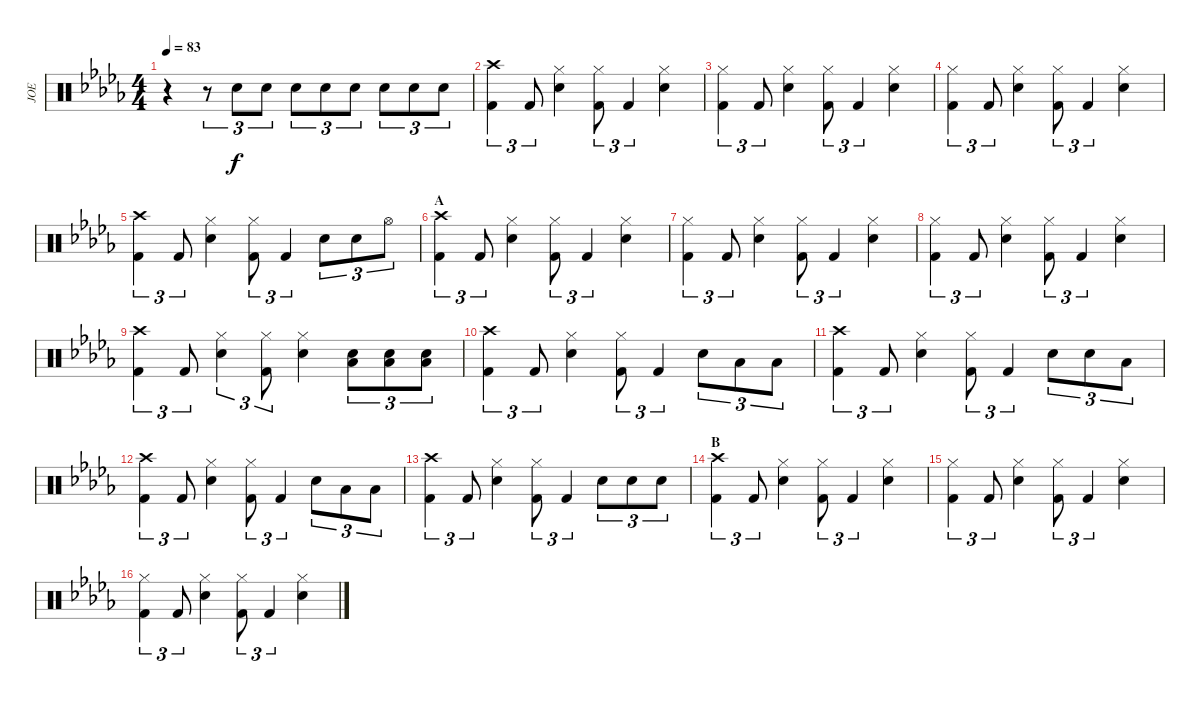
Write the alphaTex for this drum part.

\track ("JOE" "JOE") {instrument percussion}
\staff {score}
\articulation defaults
\ts (4 4)
\tempo 83
\clef neutral
\ks db
r.4{dy f} r.8{tu (3 2)} "Snare (hit) 2".8{tu (3 2)} "Snare (hit) 2".8{tu (3 2)} "Snare (hit) 2".8{tu (3 2)} "Snare (hit) 2".8{tu (3 2)} "Snare (hit) 2".8{tu (3 2)} "Snare (hit) 2".8{tu (3 2)} "Snare (hit) 2".8{tu (3 2)} "Snare (hit) 2".8{tu (3 2)} |
("Crash high (hit)" "Kick (hit) 2").4{tu (3 2)} "Kick (hit) 2".8{tu (3 2)} ("Hi-Hat (closed)" "Snare (hit) 2").4 ("Hi-Hat (closed)" "Kick (hit) 2").8{tu (3 2)} "Kick (hit) 2".4{tu (3 2)} ("Hi-Hat (closed)" "Snare (hit) 2").4 |
("Hi-Hat (closed)" "Kick (hit) 2").4{tu (3 2)} "Kick (hit) 2".8{tu (3 2)} ("Hi-Hat (closed)" "Snare (hit) 2").4 ("Hi-Hat (closed)" "Kick (hit) 2").8{tu (3 2)} "Kick (hit) 2".4{tu (3 2)} ("Hi-Hat (closed)" "Snare (hit) 2").4 |
("Hi-Hat (closed)" "Kick (hit) 2").4{tu (3 2)} "Kick (hit) 2".8{tu (3 2)} ("Hi-Hat (closed)" "Snare (hit) 2").4 ("Hi-Hat (closed)" "Kick (hit) 2").8{tu (3 2)} "Kick (hit) 2".4{tu (3 2)} ("Hi-Hat (closed)" "Snare (hit) 2").4 |
("Crash high (hit)" "Kick (hit) 2").4{tu (3 2)} "Kick (hit) 2".8{tu (3 2)} ("Hi-Hat (closed)" "Snare (hit) 2").4 ("Hi-Hat (closed)" "Kick (hit) 2").8{tu (3 2)} "Kick (hit) 2".4{tu (3 2)} "Snare (hit) 2".8{tu (3 2)} "Snare (hit) 2".8{tu (3 2)} "Hi-Hat (open)".8{tu (3 2)} |
\section ("" "A")
("Crash high (hit)" "Kick (hit) 2").4{tu (3 2)} "Kick (hit) 2".8{tu (3 2)} ("Hi-Hat (closed)" "Snare (hit) 2").4 ("Hi-Hat (closed)" "Kick (hit) 2").8{tu (3 2)} "Kick (hit) 2".4{tu (3 2)} ("Hi-Hat (closed)" "Snare (hit) 2").4 |
("Hi-Hat (closed)" "Kick (hit) 2").4{tu (3 2)} "Kick (hit) 2".8{tu (3 2)} ("Hi-Hat (closed)" "Snare (hit) 2").4 ("Hi-Hat (closed)" "Kick (hit) 2").8{tu (3 2)} "Kick (hit) 2".4{tu (3 2)} ("Hi-Hat (closed)" "Snare (hit) 2").4 |
("Hi-Hat (closed)" "Kick (hit) 2").4{tu (3 2)} "Kick (hit) 2".8{tu (3 2)} ("Hi-Hat (closed)" "Snare (hit) 2").4 ("Hi-Hat (closed)" "Kick (hit) 2").8{tu (3 2)} "Kick (hit) 2".4{tu (3 2)} ("Hi-Hat (closed)" "Snare (hit) 2").4 |
("Crash high (hit)" "Kick (hit) 2").4{tu (3 2)} "Kick (hit) 2".8{tu (3 2)} ("Hi-Hat (closed)" "Snare (hit) 2").4{tu (3 2)} ("Hi-Hat (closed)" "Kick (hit) 2").8{tu (3 2)} ("Hi-Hat (closed)" "Snare (hit) 2").4 ("Low Floor Tom (hit)" "Snare (hit) 2").8{tu (3 2)} ("Low Floor Tom (hit)" "Snare (hit) 2").8{tu (3 2)} ("Low Floor Tom (hit)" "Snare (hit) 2").8{tu (3 2)} |
("Crash high (hit)" "Kick (hit) 2").4{tu (3 2)} "Kick (hit) 2".8{tu (3 2)} ("Hi-Hat (closed)" "Snare (hit) 2").4 ("Hi-Hat (closed)" "Kick (hit) 2").8{tu (3 2)} "Kick (hit) 2".4{tu (3 2)} "Snare (hit) 2".8{tu (3 2)} "Low Floor Tom (hit)".8{tu (3 2)} "Low Floor Tom (hit)".8{tu (3 2)} |
("Crash high (hit)" "Kick (hit) 2").4{tu (3 2)} "Kick (hit) 2".8{tu (3 2)} ("Hi-Hat (closed)" "Snare (hit) 2").4 ("Hi-Hat (closed)" "Kick (hit) 2").8{tu (3 2)} "Kick (hit) 2".4{tu (3 2)} "Snare (hit) 2".8{tu (3 2)} "Snare (hit) 2".8{tu (3 2)} "Low Floor Tom (hit)".8{tu (3 2)} |
("Crash high (hit)" "Kick (hit) 2").4{tu (3 2)} "Kick (hit) 2".8{tu (3 2)} ("Hi-Hat (closed)" "Snare (hit) 2").4 ("Hi-Hat (closed)" "Kick (hit) 2").8{tu (3 2)} "Kick (hit) 2".4{tu (3 2)} "Snare (hit) 2".8{tu (3 2)} "Low Floor Tom (hit)".8{tu (3 2)} "Low Floor Tom (hit)".8{tu (3 2)} |
("Crash high (hit)" "Kick (hit) 2").4{tu (3 2)} "Kick (hit) 2".8{tu (3 2)} ("Hi-Hat (closed)" "Snare (hit) 2").4 ("Hi-Hat (closed)" "Kick (hit) 2").8{tu (3 2)} "Kick (hit) 2".4{tu (3 2)} "Snare (hit) 2".8{tu (3 2)} "Snare (hit) 2".8{tu (3 2)} "Snare (hit) 2".8{tu (3 2)} |
\section ("" "B")
("Crash high (hit)" "Kick (hit) 2").4{tu (3 2)} "Kick (hit) 2".8{tu (3 2)} ("Hi-Hat (closed)" "Snare (hit) 2").4 ("Hi-Hat (closed)" "Kick (hit) 2").8{tu (3 2)} "Kick (hit) 2".4{tu (3 2)} ("Hi-Hat (closed)" "Snare (hit) 2").4 |
("Hi-Hat (closed)" "Kick (hit) 2").4{tu (3 2)} "Kick (hit) 2".8{tu (3 2)} ("Hi-Hat (closed)" "Snare (hit) 2").4 ("Hi-Hat (closed)" "Kick (hit) 2").8{tu (3 2)} "Kick (hit) 2".4{tu (3 2)} ("Hi-Hat (closed)" "Snare (hit) 2").4 |
("Hi-Hat (closed)" "Kick (hit) 2").4{tu (3 2)} "Kick (hit) 2".8{tu (3 2)} ("Hi-Hat (closed)" "Snare (hit) 2").4 ("Hi-Hat (closed)" "Kick (hit) 2").8{tu (3 2)} "Kick (hit) 2".4{tu (3 2)} ("Hi-Hat (closed)" "Snare (hit) 2").4
